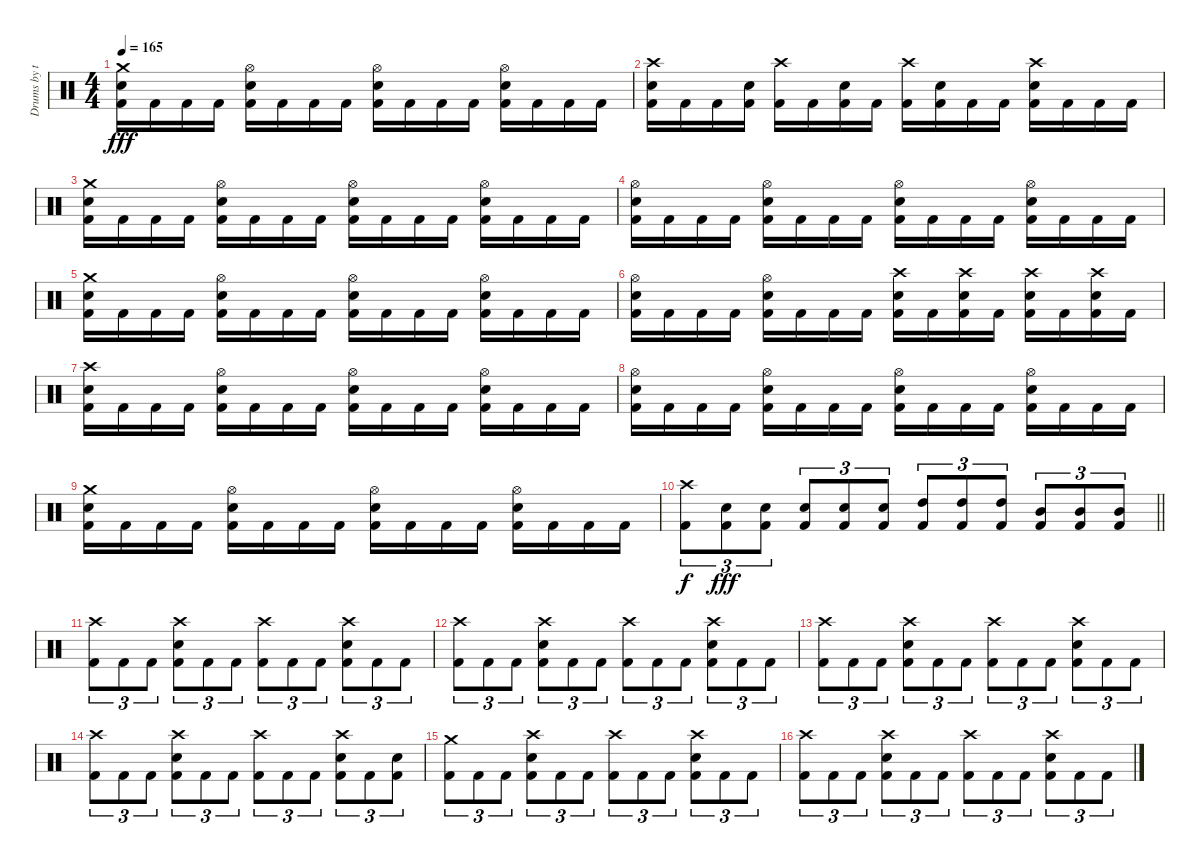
\track ("Drums by terryn0" "Drums by t") {instrument percussion}
\staff {score}
\articulation defaults
\ts (4 4)
\tempo 165
\clef neutral
\ks c
("Crash medium (hit)" "Electric Snare (hit)" "Kick (hit) 2").16{dy fff} "Kick (hit) 2".16 "Kick (hit) 2".16 "Kick (hit) 2".16 ("Hi-Hat (open)" "Electric Snare (hit)" "Kick (hit) 2").16 "Kick (hit) 2".16 "Kick (hit) 2".16 "Kick (hit) 2".16 ("Hi-Hat (open)" "Electric Snare (hit)" "Kick (hit) 2").16 "Kick (hit) 2".16 "Kick (hit) 2".16 "Kick (hit) 2".16 ("Hi-Hat (open)" "Electric Snare (hit)" "Kick (hit) 2").16 "Kick (hit) 2".16 "Kick (hit) 2".16 "Kick (hit) 2".16 |
("Crash high (hit)" "Electric Snare (hit)" "Kick (hit) 2").16 "Kick (hit) 2".16 "Kick (hit) 2".16 ("Electric Snare (hit)" "Kick (hit) 2").16 ("Crash high (hit)" "Kick (hit) 2").16 "Kick (hit) 2".16 ("Electric Snare (hit)" "Kick (hit) 2").16 "Kick (hit) 2".16 ("Crash high (hit)" "Kick (hit) 2").16 ("Electric Snare (hit)" "Kick (hit) 2").16 "Kick (hit) 2".16 "Kick (hit) 2".16 ("Crash high (hit)" "Electric Snare (hit)" "Kick (hit) 2").16 "Kick (hit) 2".16 "Kick (hit) 2".16 "Kick (hit) 2".16 |
("Crash medium (hit)" "Electric Snare (hit)" "Kick (hit) 2").16 "Kick (hit) 2".16 "Kick (hit) 2".16 "Kick (hit) 2".16 ("Hi-Hat (open)" "Electric Snare (hit)" "Kick (hit) 2").16 "Kick (hit) 2".16 "Kick (hit) 2".16 "Kick (hit) 2".16 ("Hi-Hat (open)" "Electric Snare (hit)" "Kick (hit) 2").16 "Kick (hit) 2".16 "Kick (hit) 2".16 "Kick (hit) 2".16 ("Hi-Hat (open)" "Electric Snare (hit)" "Kick (hit) 2").16 "Kick (hit) 2".16 "Kick (hit) 2".16 "Kick (hit) 2".16 |
("Hi-Hat (open)" "Electric Snare (hit)" "Kick (hit) 2").16 "Kick (hit) 2".16 "Kick (hit) 2".16 "Kick (hit) 2".16 ("Hi-Hat (open)" "Electric Snare (hit)" "Kick (hit) 2").16 "Kick (hit) 2".16 "Kick (hit) 2".16 "Kick (hit) 2".16 ("Hi-Hat (open)" "Electric Snare (hit)" "Kick (hit) 2").16 "Kick (hit) 2".16 "Kick (hit) 2".16 "Kick (hit) 2".16 ("Hi-Hat (open)" "Electric Snare (hit)" "Kick (hit) 2").16 "Kick (hit) 2".16 "Kick (hit) 2".16 "Kick (hit) 2".16 |
("Crash medium (hit)" "Electric Snare (hit)" "Kick (hit) 2").16 "Kick (hit) 2".16 "Kick (hit) 2".16 "Kick (hit) 2".16 ("Hi-Hat (open)" "Electric Snare (hit)" "Kick (hit) 2").16 "Kick (hit) 2".16 "Kick (hit) 2".16 "Kick (hit) 2".16 ("Hi-Hat (open)" "Electric Snare (hit)" "Kick (hit) 2").16 "Kick (hit) 2".16 "Kick (hit) 2".16 "Kick (hit) 2".16 ("Hi-Hat (open)" "Electric Snare (hit)" "Kick (hit) 2").16 "Kick (hit) 2".16 "Kick (hit) 2".16 "Kick (hit) 2".16 |
("Hi-Hat (open)" "Electric Snare (hit)" "Kick (hit) 2").16 "Kick (hit) 2".16 "Kick (hit) 2".16 "Kick (hit) 2".16 ("Hi-Hat (open)" "Electric Snare (hit)" "Kick (hit) 2").16 "Kick (hit) 2".16 "Kick (hit) 2".16 "Kick (hit) 2".16 ("Crash high (hit)" "Electric Snare (hit)" "Kick (hit) 2").16 "Kick (hit) 2".16 ("Crash high (hit)" "Electric Snare (hit)" "Kick (hit) 2").16 "Kick (hit) 2".16 ("Crash high (hit)" "Electric Snare (hit)" "Kick (hit) 2").16 "Kick (hit) 2".16 ("Crash high (hit)" "Electric Snare (hit)" "Kick (hit) 2").16 "Kick (hit) 2".16 |
("Crash high (hit)" "Electric Snare (hit)" "Kick (hit) 2").16 "Kick (hit) 2".16 "Kick (hit) 2".16 "Kick (hit) 2".16 ("Hi-Hat (open)" "Electric Snare (hit)" "Kick (hit) 2").16 "Kick (hit) 2".16 "Kick (hit) 2".16 "Kick (hit) 2".16 ("Hi-Hat (open)" "Electric Snare (hit)" "Kick (hit) 2").16 "Kick (hit) 2".16 "Kick (hit) 2".16 "Kick (hit) 2".16 ("Hi-Hat (open)" "Electric Snare (hit)" "Kick (hit) 2").16 "Kick (hit) 2".16 "Kick (hit) 2".16 "Kick (hit) 2".16 |
("Hi-Hat (open)" "Electric Snare (hit)" "Kick (hit) 2").16 "Kick (hit) 2".16 "Kick (hit) 2".16 "Kick (hit) 2".16 ("Hi-Hat (open)" "Electric Snare (hit)" "Kick (hit) 2").16 "Kick (hit) 2".16 "Kick (hit) 2".16 "Kick (hit) 2".16 ("Hi-Hat (open)" "Electric Snare (hit)" "Kick (hit) 2").16 "Kick (hit) 2".16 "Kick (hit) 2".16 "Kick (hit) 2".16 ("Hi-Hat (open)" "Electric Snare (hit)" "Kick (hit) 2").16 "Kick (hit) 2".16 "Kick (hit) 2".16 "Kick (hit) 2".16 |
("Crash medium (hit)" "Electric Snare (hit)" "Kick (hit) 2").16 "Kick (hit) 2".16 "Kick (hit) 2".16 "Kick (hit) 2".16 ("Hi-Hat (open)" "Electric Snare (hit)" "Kick (hit) 2").16 "Kick (hit) 2".16 "Kick (hit) 2".16 "Kick (hit) 2".16 ("Hi-Hat (open)" "Electric Snare (hit)" "Kick (hit) 2").16 "Kick (hit) 2".16 "Kick (hit) 2".16 "Kick (hit) 2".16 ("Hi-Hat (open)" "Electric Snare (hit)" "Kick (hit) 2").16 "Kick (hit) 2".16 "Kick (hit) 2".16 "Kick (hit) 2".16 |
\barLineRight lightlight
("Crash high (hit)" "Kick (hit) 2").8{tu (3 2) dy f} ("Electric Snare (hit)" "Kick (hit) 2").8{tu (3 2) dy fff} ("Electric Snare (hit)" "Kick (hit) 2").8{tu (3 2)} ("Electric Snare (hit)" "Kick (hit) 2").8{tu (3 2)} ("Electric Snare (hit)" "Kick (hit) 2").8{tu (3 2)} ("Electric Snare (hit)" "Kick (hit) 2").8{tu (3 2)} ("High Tom (hit)" "Kick (hit) 2").8{tu (3 2)} ("High Tom (hit)" "Kick (hit) 2").8{tu (3 2)} ("High Tom (hit)" "Kick (hit) 2").8{tu (3 2)} ("Mid Tom (hit)" "Kick (hit) 2").8{tu (3 2)} ("Mid Tom (hit)" "Kick (hit) 2").8{tu (3 2)} ("Mid Tom (hit)" "Kick (hit) 2").8{tu (3 2)} |
("Crash high (hit)" "Kick (hit) 2").8{tu (3 2)} "Kick (hit) 2".8{tu (3 2)} "Kick (hit) 2".8{tu (3 2)} ("Crash high (hit)" "Electric Snare (hit)" "Kick (hit) 2").8{tu (3 2)} "Kick (hit) 2".8{tu (3 2)} "Kick (hit) 2".8{tu (3 2)} ("Crash high (hit)" "Kick (hit) 2").8{tu (3 2)} "Kick (hit) 2".8{tu (3 2)} "Kick (hit) 2".8{tu (3 2)} ("Crash high (hit)" "Electric Snare (hit)" "Kick (hit) 2").8{tu (3 2)} "Kick (hit) 2".8{tu (3 2)} "Kick (hit) 2".8{tu (3 2)} |
("Crash high (hit)" "Kick (hit) 2").8{tu (3 2)} "Kick (hit) 2".8{tu (3 2)} "Kick (hit) 2".8{tu (3 2)} ("Crash high (hit)" "Electric Snare (hit)" "Kick (hit) 2").8{tu (3 2)} "Kick (hit) 2".8{tu (3 2)} "Kick (hit) 2".8{tu (3 2)} ("Crash high (hit)" "Kick (hit) 2").8{tu (3 2)} "Kick (hit) 2".8{tu (3 2)} "Kick (hit) 2".8{tu (3 2)} ("Crash high (hit)" "Electric Snare (hit)" "Kick (hit) 2").8{tu (3 2)} "Kick (hit) 2".8{tu (3 2)} "Kick (hit) 2".8{tu (3 2)} |
("Crash high (hit)" "Kick (hit) 2").8{tu (3 2)} "Kick (hit) 2".8{tu (3 2)} "Kick (hit) 2".8{tu (3 2)} ("Crash high (hit)" "Electric Snare (hit)" "Kick (hit) 2").8{tu (3 2)} "Kick (hit) 2".8{tu (3 2)} "Kick (hit) 2".8{tu (3 2)} ("Crash high (hit)" "Kick (hit) 2").8{tu (3 2)} "Kick (hit) 2".8{tu (3 2)} "Kick (hit) 2".8{tu (3 2)} ("Crash high (hit)" "Electric Snare (hit)" "Kick (hit) 2").8{tu (3 2)} "Kick (hit) 2".8{tu (3 2)} "Kick (hit) 2".8{tu (3 2)} |
("Crash high (hit)" "Kick (hit) 2").8{tu (3 2)} "Kick (hit) 2".8{tu (3 2)} "Kick (hit) 2".8{tu (3 2)} ("Crash high (hit)" "Electric Snare (hit)" "Kick (hit) 2").8{tu (3 2)} "Kick (hit) 2".8{tu (3 2)} "Kick (hit) 2".8{tu (3 2)} ("Crash high (hit)" "Kick (hit) 2").8{tu (3 2)} "Kick (hit) 2".8{tu (3 2)} "Kick (hit) 2".8{tu (3 2)} ("Crash high (hit)" "Electric Snare (hit)" "Kick (hit) 2").8{tu (3 2)} "Kick (hit) 2".8{tu (3 2)} ("Electric Snare (hit)" "Kick (hit) 2").8{tu (3 2)} |
("Crash medium (hit)" "Kick (hit) 2").8{tu (3 2)} "Kick (hit) 2".8{tu (3 2)} "Kick (hit) 2".8{tu (3 2)} ("Crash high (hit)" "Electric Snare (hit)" "Kick (hit) 2").8{tu (3 2)} "Kick (hit) 2".8{tu (3 2)} "Kick (hit) 2".8{tu (3 2)} ("Crash high (hit)" "Kick (hit) 2").8{tu (3 2)} "Kick (hit) 2".8{tu (3 2)} "Kick (hit) 2".8{tu (3 2)} ("Crash high (hit)" "Electric Snare (hit)" "Kick (hit) 2").8{tu (3 2)} "Kick (hit) 2".8{tu (3 2)} "Kick (hit) 2".8{tu (3 2)} |
("Crash high (hit)" "Kick (hit) 2").8{tu (3 2)} "Kick (hit) 2".8{tu (3 2)} "Kick (hit) 2".8{tu (3 2)} ("Crash high (hit)" "Electric Snare (hit)" "Kick (hit) 2").8{tu (3 2)} "Kick (hit) 2".8{tu (3 2)} "Kick (hit) 2".8{tu (3 2)} ("Crash high (hit)" "Kick (hit) 2").8{tu (3 2)} "Kick (hit) 2".8{tu (3 2)} "Kick (hit) 2".8{tu (3 2)} ("Crash high (hit)" "Electric Snare (hit)" "Kick (hit) 2").8{tu (3 2)} "Kick (hit) 2".8{tu (3 2)} "Kick (hit) 2".8{tu (3 2)}
